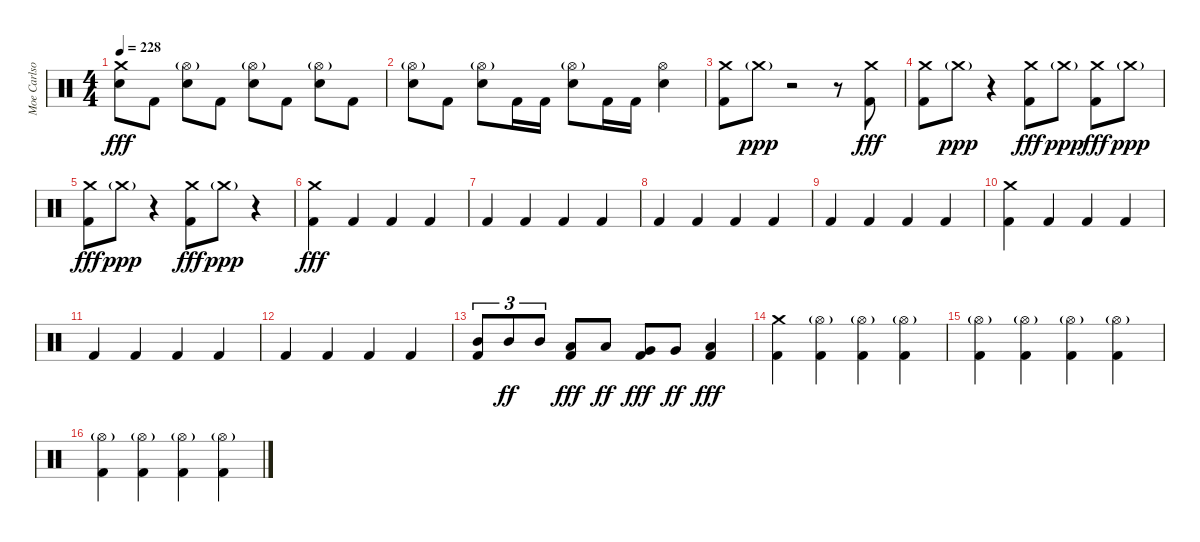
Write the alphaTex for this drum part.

\track ("Moe Carlson" "Moe Carlso") {instrument percussion}
\staff {score}
\articulation defaults
\ts (4 4)
\tempo 228
\clef neutral
\ks c
("Crash medium (hit)" "Electric Snare (hit)").8{dy fff} "Kick (hit) 2".8 ("Hi-Hat (open)"{g} "Electric Snare (hit)").8 "Kick (hit) 2".8 ("Hi-Hat (open)"{g} "Electric Snare (hit)").8 "Kick (hit) 2".8 ("Hi-Hat (open)"{g} "Electric Snare (hit)").8 "Kick (hit) 2".8 |
("Hi-Hat (open)"{g} "Electric Snare (hit)").8 "Kick (hit) 2".8 ("Hi-Hat (open)"{g} "Electric Snare (hit)").8 "Kick (hit) 2".16 "Kick (hit) 2".16 ("Hi-Hat (open)"{g} "Electric Snare (hit)").8 "Kick (hit) 2".16 "Kick (hit) 2".16 ("Hi-Hat (open)" "Electric Snare (hit)").4 |
("Crash medium (hit)" "Kick (hit) 2").8 "Crash medium (hit)"{g}.8{dy ppp} r.2 r.8 ("Crash medium (hit)" "Kick (hit) 2").8{dy fff} |
("Crash medium (hit)" "Kick (hit) 2").8 "Crash medium (hit)"{g}.8{dy ppp} r.4 ("Crash medium (hit)" "Kick (hit) 2").8{dy fff} "Crash medium (hit)"{g}.8{dy ppp} ("Crash medium (hit)" "Kick (hit) 2").8{dy fff} "Crash medium (hit)"{g}.8{dy ppp} |
("Crash medium (hit)" "Kick (hit) 2").8{dy fff} "Crash medium (hit)"{g}.8{dy ppp} r.4 ("Crash medium (hit)" "Kick (hit) 2").8{dy fff} "Crash medium (hit)"{g}.8{dy ppp} r.4 |
("Crash medium (hit)" "Kick (hit) 2").4{dy fff} "Kick (hit) 2".4 "Kick (hit) 2".4 "Kick (hit) 2".4 |
"Kick (hit) 2".4 "Kick (hit) 2".4 "Kick (hit) 2".4 "Kick (hit) 2".4 |
"Kick (hit) 2".4 "Kick (hit) 2".4 "Kick (hit) 2".4 "Kick (hit) 2".4 |
"Kick (hit) 2".4 "Kick (hit) 2".4 "Kick (hit) 2".4 "Kick (hit) 2".4 |
("Crash medium (hit)" "Kick (hit) 2").4 "Kick (hit) 2".4 "Kick (hit) 2".4 "Kick (hit) 2".4 |
"Kick (hit) 2".4 "Kick (hit) 2".4 "Kick (hit) 2".4 "Kick (hit) 2".4 |
"Kick (hit) 2".4 "Kick (hit) 2".4 "Kick (hit) 2".4 "Kick (hit) 2".4 |
("Mid Tom (hit)" "Kick (hit) 2").8{tu (3 2)} "Mid Tom (hit)".8{tu (3 2) dy ff} "Mid Tom (hit)".8{tu (3 2)} ("Low Tom (hit)" "Kick (hit) 2").8{dy fff} "Low Tom (hit)".8{dy ff} ("Very Low Tom (hit)" "Kick (hit) 2").8{dy fff} "Very Low Tom (hit)".8{dy ff} ("Low Floor Tom (hit)" "Kick (hit) 2").4{dy fff} |
("Crash medium (hit)" "Kick (hit) 2").4 ("Hi-Hat (open)"{g} "Kick (hit) 2").4 ("Hi-Hat (open)"{g} "Kick (hit) 2").4 ("Hi-Hat (open)"{g} "Kick (hit) 2").4 |
("Hi-Hat (open)"{g} "Kick (hit) 2").4 ("Hi-Hat (open)"{g} "Kick (hit) 2").4 ("Hi-Hat (open)"{g} "Kick (hit) 2").4 ("Hi-Hat (open)"{g} "Kick (hit) 2").4 |
("Hi-Hat (open)"{g} "Kick (hit) 2").4 ("Hi-Hat (open)"{g} "Kick (hit) 2").4 ("Hi-Hat (open)"{g} "Kick (hit) 2").4 ("Hi-Hat (open)"{g} "Kick (hit) 2").4
